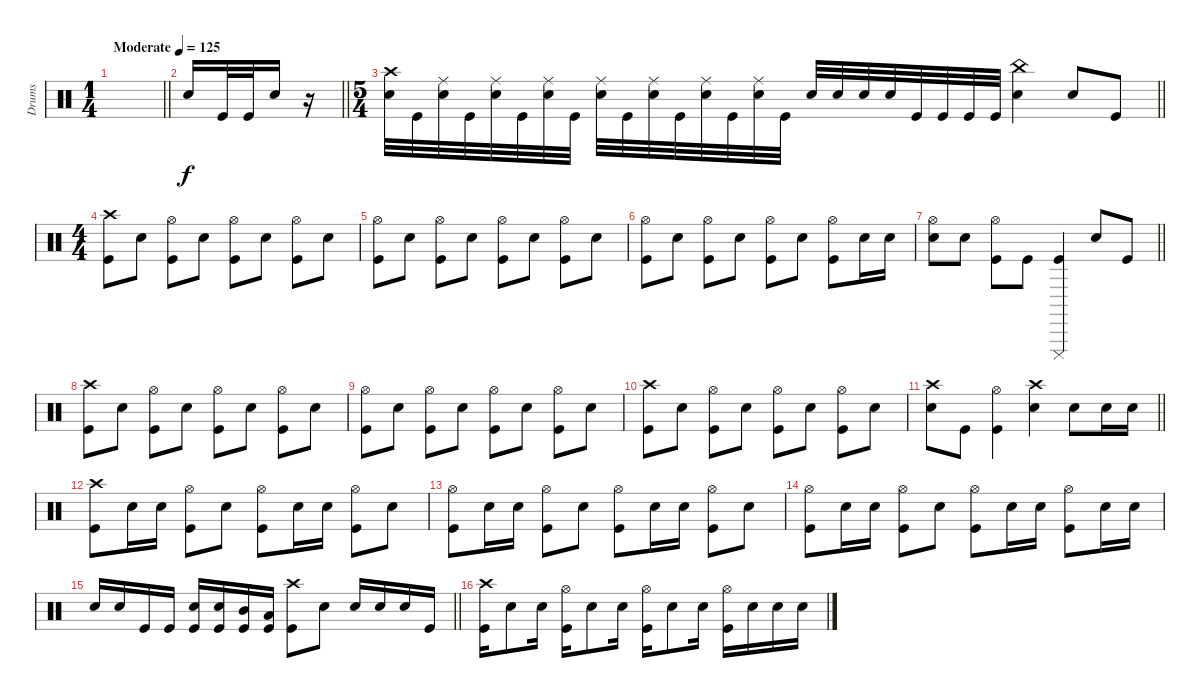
\track ("Drums" "Drums") {instrument percussion}
\staff
\articulation defaults
\ts (1 4)
\tempo (125 "Moderate")
\clef neutral
\barLineRight lightlight
\ks c
|
\barLineRight lightlight "Electric Snare (hit)".16 "Kick (hit)".32 "Kick (hit)".32 "Electric Snare (hit)".16
r.16 |
\ts (5 4)
\barLineRight lightlight
("Crash high (hit)" "Electric Snare (hit)").32 "Kick (hit)".32 ("Ride (middle)" "Electric Snare (hit)").32 "Kick (hit)".32 ("Ride (middle)" "Electric Snare (hit)").32 "Kick (hit)".32 ("Ride (middle)" "Electric Snare (hit)").32 "Kick (hit)".32 ("Ride (middle)" "Electric Snare (hit)").32 "Kick (hit)".32 ("Ride (middle)" "Electric Snare (hit)").32 "Kick (hit)".32 ("Ride (middle)" "Electric Snare (hit)").32 "Kick (hit)".32 ("Ride (middle)" "Electric Snare (hit)").32 "Kick (hit)".32 "Electric Snare (hit)".32 "Electric Snare (hit)".32 "Electric Snare (hit)".32 "Electric Snare (hit)".32 "Kick (hit)".32 "Kick (hit)".32 "Kick (hit)".32 "Kick (hit)".32 ("China (hit)" "Electric Snare (hit)").4 "Electric Snare (hit)".8 "Kick (hit)".8 |
\ts (4 4)
("Crash high (hit)" "Kick (hit)").8 "Electric Snare (hit)".8 ("Hi-Hat (open)" "Kick (hit)").8 "Electric Snare (hit)".8 ("Hi-Hat (open)" "Kick (hit)").8 "Electric Snare (hit)".8 ("Hi-Hat (open)" "Kick (hit)").8 "Electric Snare (hit)".8 |
("Hi-Hat (open)" "Kick (hit)").8 "Electric Snare (hit)".8 ("Hi-Hat (open)" "Kick (hit)").8 "Electric Snare (hit)".8 ("Hi-Hat (open)" "Kick (hit)").8 "Electric Snare (hit)".8 ("Hi-Hat (open)" "Kick (hit)").8 "Electric Snare (hit)".8 |
("Hi-Hat (open)" "Kick (hit)").8 "Electric Snare (hit)".8 ("Hi-Hat (open)" "Kick (hit)").8 "Electric Snare (hit)".8 ("Hi-Hat (open)" "Kick (hit)").8 "Electric Snare (hit)".8 ("Hi-Hat (open)" "Kick (hit)").8 "Electric Snare (hit)".16 "Electric Snare (hit)".16 |
\barLineRight lightlight
("Hi-Hat (open)" "Electric Snare (hit)").8 "Electric Snare (hit)".8 ("Hi-Hat (open)" "Kick (hit)").8 "Kick (hit)".8 ("Cuica (mute)" "Kick (hit)").4 "Electric Snare (hit)".8 "Kick (hit)".8 |
("Crash high (hit)" "Kick (hit)").8 "Electric Snare (hit)".8 ("Hi-Hat (open)" "Kick (hit)").8 "Electric Snare (hit)".8 ("Hi-Hat (open)" "Kick (hit)").8 "Electric Snare (hit)".8 ("Hi-Hat (open)" "Kick (hit)").8 "Electric Snare (hit)".8 |
("Hi-Hat (open)" "Kick (hit)").8 "Electric Snare (hit)".8 ("Hi-Hat (open)" "Kick (hit)").8 "Electric Snare (hit)".8 ("Hi-Hat (open)" "Kick (hit)").8 "Electric Snare (hit)".8 ("Hi-Hat (open)" "Kick (hit)").8 "Electric Snare (hit)".8 |
("Crash high (hit)" "Kick (hit)").8 "Electric Snare (hit)".8 ("Hi-Hat (open)" "Kick (hit)").8 "Electric Snare (hit)".8 ("Hi-Hat (open)" "Kick (hit)").8 "Electric Snare (hit)".8 ("Hi-Hat (open)" "Kick (hit)").8 "Electric Snare (hit)".8 |
\barLineRight lightlight
("Crash high (hit)" "Electric Snare (hit)").8 "Kick (hit)".8 ("Hi-Hat (open)" "Kick (hit)").4 ("Crash high (hit)" "Electric Snare (hit)").4 "Electric Snare (hit)".8 "Electric Snare (hit)".16 "Electric Snare (hit)".16 |
("Crash high (hit)" "Kick (hit)").8 "Electric Snare (hit)".16 "Electric Snare (hit)".16 ("Hi-Hat (open)" "Kick (hit)").8 "Electric Snare (hit)".8 ("Hi-Hat (open)" "Kick (hit)").8 "Electric Snare (hit)".16 "Electric Snare (hit)".16 ("Hi-Hat (open)" "Kick (hit)").8 "Electric Snare (hit)".8 |
("Hi-Hat (open)" "Kick (hit)").8 "Electric Snare (hit)".16 "Electric Snare (hit)".16 ("Hi-Hat (open)" "Kick (hit)").8 "Electric Snare (hit)".8 ("Hi-Hat (open)" "Kick (hit)").8 "Electric Snare (hit)".16 "Electric Snare (hit)".16 ("Hi-Hat (open)" "Kick (hit)").8 "Electric Snare (hit)".8 |
("Hi-Hat (open)" "Kick (hit)").8 "Electric Snare (hit)".16 "Electric Snare (hit)".16 ("Hi-Hat (open)" "Kick (hit)").8 "Electric Snare (hit)".8 ("Hi-Hat (open)" "Kick (hit)").8 "Electric Snare (hit)".16 "Electric Snare (hit)".16 ("Hi-Hat (open)" "Kick (hit)").8 "Electric Snare (hit)".16 "Electric Snare (hit)".16 |
\barLineRight lightlight "Electric Snare (hit)".16 "Electric Snare (hit)".16 "Kick (hit)".16 "Kick (hit)".16
("Electric Snare (hit)" "Kick (hit)").16 ("Electric Snare (hit)" "Kick (hit)").16 ("Mid Tom (hit)" "Kick (hit)").16 ("Low Tom (hit)" "Kick (hit)").16 ("Crash high (hit)" "Kick (hit)").8 "Electric Snare (hit)".8 "Electric Snare (hit)".16 "Electric Snare (hit)".16 "Electric Snare (hit)".16 "Kick (hit)".16 |
("Crash high (hit)" "Kick (hit)").16 "Electric Snare (hit)".8 "Electric Snare (hit)".16 ("Hi-Hat (open)" "Kick (hit)").16 "Electric Snare (hit)".8 "Electric Snare (hit)".16 ("Hi-Hat (open)" "Kick (hit)").16 "Electric Snare (hit)".8 "Electric Snare (hit)".16 ("Hi-Hat (open)" "Kick (hit)").16 "Electric Snare (hit)".16 "Electric Snare (hit)".16 "Electric Snare (hit)".16
